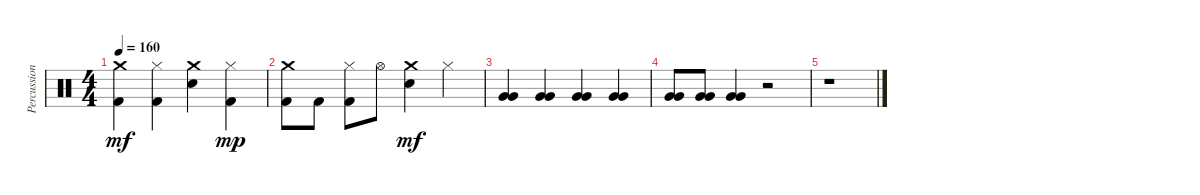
\track ("Percussion" "Percussion") {instrument percussion}
\staff {score}
\articulation defaults
\ts (4 4)
\tempo 160
\clef neutral
\ks c
("Crash medium (hit)" "Kick (hit) 2").4{dy mf} ("Hi-Hat (closed)" "Kick (hit) 2").4 ("Crash medium (hit)" "Electric Snare (hit)").4 ("Hi-Hat (closed)" "Kick (hit) 2").4{dy mp} |
("Crash medium (hit)" "Kick (hit) 2").8 "Kick (hit) 2".8 ("Hi-Hat (closed)" "Kick (hit) 2").8 "Hi-Hat (open)".8 ("Crash medium (hit)" "Electric Snare (hit)").4{dy mf} "Hi-Hat (closed)".4 |
("Very Low Tom (hit)" "Very Low Tom (hit)").4 ("Very Low Tom (hit)" "Very Low Tom (hit)").4 ("Very Low Tom (hit)" "Very Low Tom (hit)").4 ("Very Low Tom (hit)" "Very Low Tom (hit)").4 |
("Very Low Tom (hit)" "Very Low Tom (hit)").8 ("Very Low Tom (hit)" "Very Low Tom (hit)").8 ("Very Low Tom (hit)" "Very Low Tom (hit)").4 r.2 |
r.1
